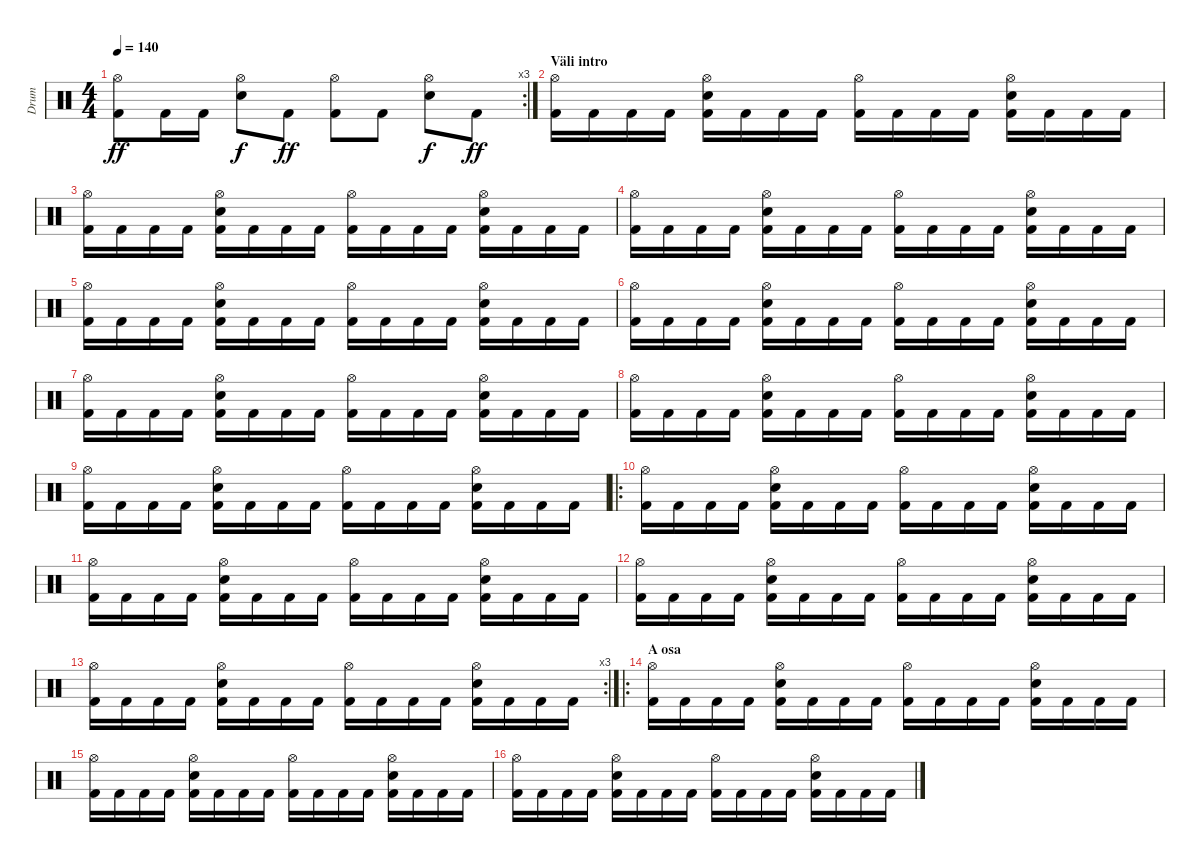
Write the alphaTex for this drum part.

\track ("Drum" "Drum") {instrument percussion}
\staff {score}
\articulation defaults
\rc 3
\ts (4 4)
\tempo 140
\clef neutral
\ks c
("Hi-Hat (open)" "Kick (hit) 2").8{dy ff} "Kick (hit) 2".16 "Kick (hit) 2".16 ("Hi-Hat (open)" "Snare (hit) 2").8{dy f} "Kick (hit) 2".8{dy ff} ("Hi-Hat (open)" "Kick (hit) 2").8 "Kick (hit) 2".8 ("Hi-Hat (open)" "Snare (hit) 2").8{dy f} "Kick (hit) 2".8{dy ff} |
\section ("" "Väli intro")
("Hi-Hat (open)" "Kick (hit) 2").16 "Kick (hit) 2".16 "Kick (hit) 2".16 "Kick (hit) 2".16 ("Hi-Hat (open)" "Snare (hit) 2" "Kick (hit) 2").16 "Kick (hit) 2".16 "Kick (hit) 2".16 "Kick (hit) 2".16 ("Hi-Hat (open)" "Kick (hit) 2").16 "Kick (hit) 2".16 "Kick (hit) 2".16 "Kick (hit) 2".16 ("Hi-Hat (open)" "Snare (hit) 2" "Kick (hit) 2").16 "Kick (hit) 2".16 "Kick (hit) 2".16 "Kick (hit) 2".16 |
("Hi-Hat (open)" "Kick (hit) 2").16 "Kick (hit) 2".16 "Kick (hit) 2".16 "Kick (hit) 2".16 ("Hi-Hat (open)" "Snare (hit) 2" "Kick (hit) 2").16 "Kick (hit) 2".16 "Kick (hit) 2".16 "Kick (hit) 2".16 ("Hi-Hat (open)" "Kick (hit) 2").16 "Kick (hit) 2".16 "Kick (hit) 2".16 "Kick (hit) 2".16 ("Hi-Hat (open)" "Snare (hit) 2" "Kick (hit) 2").16 "Kick (hit) 2".16 "Kick (hit) 2".16 "Kick (hit) 2".16 |
("Hi-Hat (open)" "Kick (hit) 2").16 "Kick (hit) 2".16 "Kick (hit) 2".16 "Kick (hit) 2".16 ("Hi-Hat (open)" "Snare (hit) 2" "Kick (hit) 2").16 "Kick (hit) 2".16 "Kick (hit) 2".16 "Kick (hit) 2".16 ("Hi-Hat (open)" "Kick (hit) 2").16 "Kick (hit) 2".16 "Kick (hit) 2".16 "Kick (hit) 2".16 ("Hi-Hat (open)" "Snare (hit) 2" "Kick (hit) 2").16 "Kick (hit) 2".16 "Kick (hit) 2".16 "Kick (hit) 2".16 |
("Hi-Hat (open)" "Kick (hit) 2").16 "Kick (hit) 2".16 "Kick (hit) 2".16 "Kick (hit) 2".16 ("Hi-Hat (open)" "Snare (hit) 2" "Kick (hit) 2").16 "Kick (hit) 2".16 "Kick (hit) 2".16 "Kick (hit) 2".16 ("Hi-Hat (open)" "Kick (hit) 2").16 "Kick (hit) 2".16 "Kick (hit) 2".16 "Kick (hit) 2".16 ("Hi-Hat (open)" "Snare (hit) 2" "Kick (hit) 2").16 "Kick (hit) 2".16 "Kick (hit) 2".16 "Kick (hit) 2".16 |
("Hi-Hat (open)" "Kick (hit) 2").16 "Kick (hit) 2".16 "Kick (hit) 2".16 "Kick (hit) 2".16 ("Hi-Hat (open)" "Snare (hit) 2" "Kick (hit) 2").16 "Kick (hit) 2".16 "Kick (hit) 2".16 "Kick (hit) 2".16 ("Hi-Hat (open)" "Kick (hit) 2").16 "Kick (hit) 2".16 "Kick (hit) 2".16 "Kick (hit) 2".16 ("Hi-Hat (open)" "Snare (hit) 2" "Kick (hit) 2").16 "Kick (hit) 2".16 "Kick (hit) 2".16 "Kick (hit) 2".16 |
("Hi-Hat (open)" "Kick (hit) 2").16 "Kick (hit) 2".16 "Kick (hit) 2".16 "Kick (hit) 2".16 ("Hi-Hat (open)" "Snare (hit) 2" "Kick (hit) 2").16 "Kick (hit) 2".16 "Kick (hit) 2".16 "Kick (hit) 2".16 ("Hi-Hat (open)" "Kick (hit) 2").16 "Kick (hit) 2".16 "Kick (hit) 2".16 "Kick (hit) 2".16 ("Hi-Hat (open)" "Snare (hit) 2" "Kick (hit) 2").16 "Kick (hit) 2".16 "Kick (hit) 2".16 "Kick (hit) 2".16 |
("Hi-Hat (open)" "Kick (hit) 2").16 "Kick (hit) 2".16 "Kick (hit) 2".16 "Kick (hit) 2".16 ("Hi-Hat (open)" "Snare (hit) 2" "Kick (hit) 2").16 "Kick (hit) 2".16 "Kick (hit) 2".16 "Kick (hit) 2".16 ("Hi-Hat (open)" "Kick (hit) 2").16 "Kick (hit) 2".16 "Kick (hit) 2".16 "Kick (hit) 2".16 ("Hi-Hat (open)" "Snare (hit) 2" "Kick (hit) 2").16 "Kick (hit) 2".16 "Kick (hit) 2".16 "Kick (hit) 2".16 |
("Hi-Hat (open)" "Kick (hit) 2").16 "Kick (hit) 2".16 "Kick (hit) 2".16 "Kick (hit) 2".16 ("Hi-Hat (open)" "Snare (hit) 2" "Kick (hit) 2").16 "Kick (hit) 2".16 "Kick (hit) 2".16 "Kick (hit) 2".16 ("Hi-Hat (open)" "Kick (hit) 2").16 "Kick (hit) 2".16 "Kick (hit) 2".16 "Kick (hit) 2".16 ("Hi-Hat (open)" "Snare (hit) 2" "Kick (hit) 2").16 "Kick (hit) 2".16 "Kick (hit) 2".16 "Kick (hit) 2".16 |
\ro
("Hi-Hat (open)" "Kick (hit) 2").16 "Kick (hit) 2".16 "Kick (hit) 2".16 "Kick (hit) 2".16 ("Hi-Hat (open)" "Snare (hit) 2" "Kick (hit) 2").16 "Kick (hit) 2".16 "Kick (hit) 2".16 "Kick (hit) 2".16 ("Hi-Hat (open)" "Kick (hit) 2").16 "Kick (hit) 2".16 "Kick (hit) 2".16 "Kick (hit) 2".16 ("Hi-Hat (open)" "Snare (hit) 2" "Kick (hit) 2").16 "Kick (hit) 2".16 "Kick (hit) 2".16 "Kick (hit) 2".16 |
("Hi-Hat (open)" "Kick (hit) 2").16 "Kick (hit) 2".16 "Kick (hit) 2".16 "Kick (hit) 2".16 ("Hi-Hat (open)" "Snare (hit) 2" "Kick (hit) 2").16 "Kick (hit) 2".16 "Kick (hit) 2".16 "Kick (hit) 2".16 ("Hi-Hat (open)" "Kick (hit) 2").16 "Kick (hit) 2".16 "Kick (hit) 2".16 "Kick (hit) 2".16 ("Hi-Hat (open)" "Snare (hit) 2" "Kick (hit) 2").16 "Kick (hit) 2".16 "Kick (hit) 2".16 "Kick (hit) 2".16 |
("Hi-Hat (open)" "Kick (hit) 2").16 "Kick (hit) 2".16 "Kick (hit) 2".16 "Kick (hit) 2".16 ("Hi-Hat (open)" "Snare (hit) 2" "Kick (hit) 2").16 "Kick (hit) 2".16 "Kick (hit) 2".16 "Kick (hit) 2".16 ("Hi-Hat (open)" "Kick (hit) 2").16 "Kick (hit) 2".16 "Kick (hit) 2".16 "Kick (hit) 2".16 ("Hi-Hat (open)" "Snare (hit) 2" "Kick (hit) 2").16 "Kick (hit) 2".16 "Kick (hit) 2".16 "Kick (hit) 2".16 |
\rc 3
("Hi-Hat (open)" "Kick (hit) 2").16 "Kick (hit) 2".16 "Kick (hit) 2".16 "Kick (hit) 2".16 ("Hi-Hat (open)" "Snare (hit) 2" "Kick (hit) 2").16 "Kick (hit) 2".16 "Kick (hit) 2".16 "Kick (hit) 2".16 ("Hi-Hat (open)" "Kick (hit) 2").16 "Kick (hit) 2".16 "Kick (hit) 2".16 "Kick (hit) 2".16 ("Hi-Hat (open)" "Snare (hit) 2" "Kick (hit) 2").16 "Kick (hit) 2".16 "Kick (hit) 2".16 "Kick (hit) 2".16 |
\ro
\section ("" "A osa")
("Hi-Hat (open)" "Kick (hit) 2").16 "Kick (hit) 2".16 "Kick (hit) 2".16 "Kick (hit) 2".16 ("Hi-Hat (open)" "Snare (hit) 2" "Kick (hit) 2").16 "Kick (hit) 2".16 "Kick (hit) 2".16 "Kick (hit) 2".16 ("Hi-Hat (open)" "Kick (hit) 2").16 "Kick (hit) 2".16 "Kick (hit) 2".16 "Kick (hit) 2".16 ("Hi-Hat (open)" "Snare (hit) 2" "Kick (hit) 2").16 "Kick (hit) 2".16 "Kick (hit) 2".16 "Kick (hit) 2".16 |
("Hi-Hat (open)" "Kick (hit) 2").16 "Kick (hit) 2".16 "Kick (hit) 2".16 "Kick (hit) 2".16 ("Hi-Hat (open)" "Snare (hit) 2" "Kick (hit) 2").16 "Kick (hit) 2".16 "Kick (hit) 2".16 "Kick (hit) 2".16 ("Hi-Hat (open)" "Kick (hit) 2").16 "Kick (hit) 2".16 "Kick (hit) 2".16 "Kick (hit) 2".16 ("Hi-Hat (open)" "Snare (hit) 2" "Kick (hit) 2").16 "Kick (hit) 2".16 "Kick (hit) 2".16 "Kick (hit) 2".16 |
("Hi-Hat (open)" "Kick (hit) 2").16 "Kick (hit) 2".16 "Kick (hit) 2".16 "Kick (hit) 2".16 ("Hi-Hat (open)" "Snare (hit) 2" "Kick (hit) 2").16 "Kick (hit) 2".16 "Kick (hit) 2".16 "Kick (hit) 2".16 ("Hi-Hat (open)" "Kick (hit) 2").16 "Kick (hit) 2".16 "Kick (hit) 2".16 "Kick (hit) 2".16 ("Hi-Hat (open)" "Snare (hit) 2" "Kick (hit) 2").16 "Kick (hit) 2".16 "Kick (hit) 2".16 "Kick (hit) 2".16
